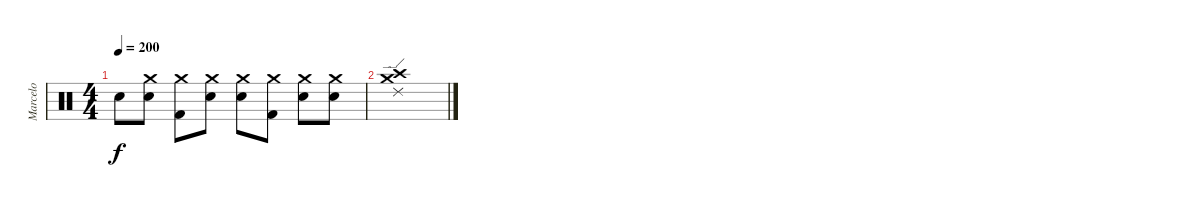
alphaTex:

\track ("Marcelo" "Marcelo") {instrument percussion}
\staff {score}
\articulation defaults
\ts (4 4)
\tempo 200
\clef neutral
\ks c "Snare (hit) 2".8{dy f}
("Crash medium (hit)" "Snare (hit) 2").8 ("Crash medium (hit)" "Kick (hit) 2").8 ("Crash medium (hit)" "Snare (hit) 2").8 ("Crash medium (hit)" "Snare (hit) 2").8 ("Crash medium (hit)" "Kick (hit) 2").8 ("Crash medium (hit)" "Snare (hit) 2").8 ("Crash medium (hit)" "Snare (hit) 2").8 |
("Crash medium (hit)" "Ride (edge) 2" "Crash high (hit)").1
